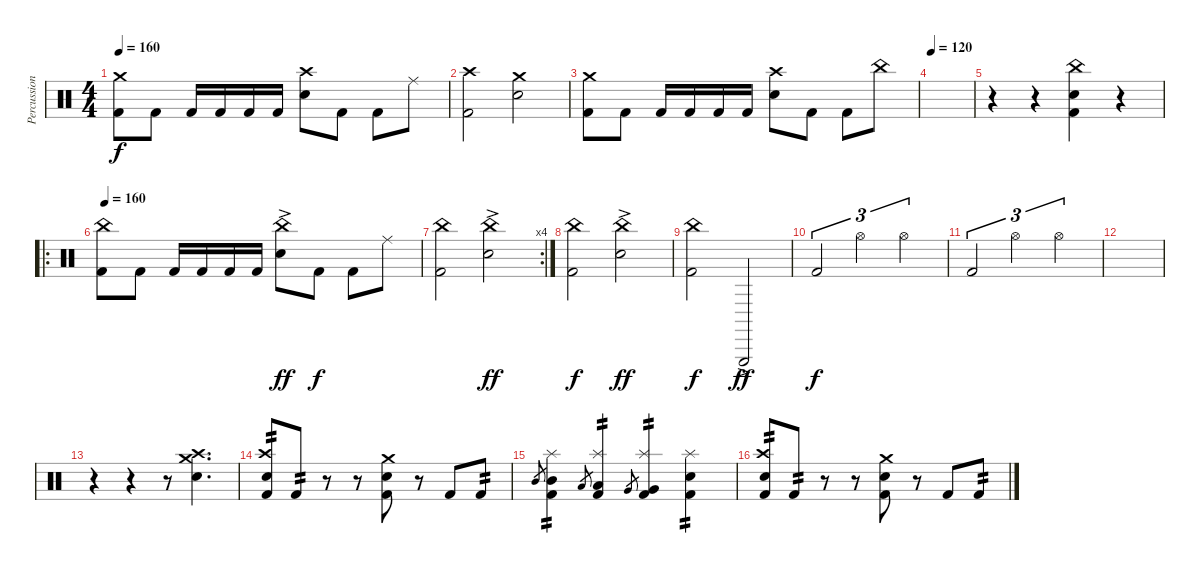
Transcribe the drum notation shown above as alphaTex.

\track ("Percussion" "Percussion") {instrument percussion}
\staff {score}
\articulation defaults
\ts (4 4)
\tempo 160
\clef neutral
\ks c
("Crash medium (hit)" "Kick (hit) 2").8{dy f} "Kick (hit) 2".8 "Kick (hit) 2".16 "Kick (hit) 2".16 "Kick (hit) 2".16 "Kick (hit) 2".16 ("Crash high (hit)" "Snare (hit) 2").8 "Kick (hit) 2".8 "Kick (hit) 2".8 "Ride (middle)".8 |
("Crash high (hit)" "Kick (hit) 2").2 ("Crash medium (hit)" "Snare (hit) 2").2 |
("Crash medium (hit)" "Kick (hit) 2").8 "Kick (hit) 2".8 "Kick (hit) 2".16 "Kick (hit) 2".16 "Kick (hit) 2".16 "Kick (hit) 2".16 ("Crash high (hit)" "Snare (hit) 2").8 "Kick (hit) 2".8 "Kick (hit) 2".8 "China (hit)".8 |
\tempo 120
|
r.4 r.4 ("China (hit)" "Snare (hit) 2" "Kick (hit) 2").4 r.4 |
\ro
\tempo 160
("China (hit)" "Kick (hit) 2").8 "Kick (hit) 2".8 "Kick (hit) 2".16 "Kick (hit) 2".16 "Kick (hit) 2".16 "Kick (hit) 2".16 ("China (hit)" "Snare (hit) 2"{ac}).8{dy ff} "Kick (hit) 2".8{dy f} "Kick (hit) 2".8 "Ride (middle)".8 |
\rc 4
("China (hit)" "Kick (hit) 2").2 ("China (hit)" "Snare (hit) 2"{ac}).2{dy ff} |
("China (hit)" "Kick (hit) 2").2{dy f} ("China (hit)" "Snare (hit) 2"{ac}).2{dy ff} |
("China (hit)" "Kick (hit) 2").2{dy f} "Triangle (hit)"{ac}.2{dy ff} |
"Kick (hit) 2".2{tu (3 2) dy f} "Hi-Hat (open)".2{tu (3 2)} "Hi-Hat (open)".2{tu (3 2)} |
"Kick (hit) 2".2{tu (3 2)} "Hi-Hat (open)".2{tu (3 2)} "Hi-Hat (open)".2{tu (3 2)} |
|
r.4 r.4 r.8 ("Crash high (hit)" "Crash medium (hit)" "Snare (hit) 2").4{d} |
("Crash high (hit)" "Snare (hit) 2" "Kick (hit) 2").8{tp 2} "Kick (hit) 2".8{tp 2} r.8 r.8 ("Crash medium (hit)" "Snare (hit) 2" "Kick (hit) 2").8 r.8 "Kick (hit) 2".8 "Kick (hit) 2".8{tp 2} |
"Mid Tom (hit)".8{gr} ("Splash (hit)" "Kick (hit) 2" "Mid Tom (hit)").4{tp 2} "Low Tom (hit)".8{gr} ("Splash (hit)" "Kick (hit) 2" "Low Tom (hit)").4{tp 2} "Very Low Tom (hit)".8{gr} ("Splash (hit)" "Kick (hit) 2" "Very Low Tom (hit)").4{tp 2} ("Splash (hit)" "Snare (hit) 2" "Kick (hit) 2").4{tp 2} |
("Crash high (hit)" "Snare (hit) 2" "Kick (hit) 2").8{tp 2} "Kick (hit) 2".8{tp 2} r.8 r.8 ("Crash medium (hit)" "Snare (hit) 2" "Kick (hit) 2").8 r.8 "Kick (hit) 2".8 "Kick (hit) 2".8{tp 2}
